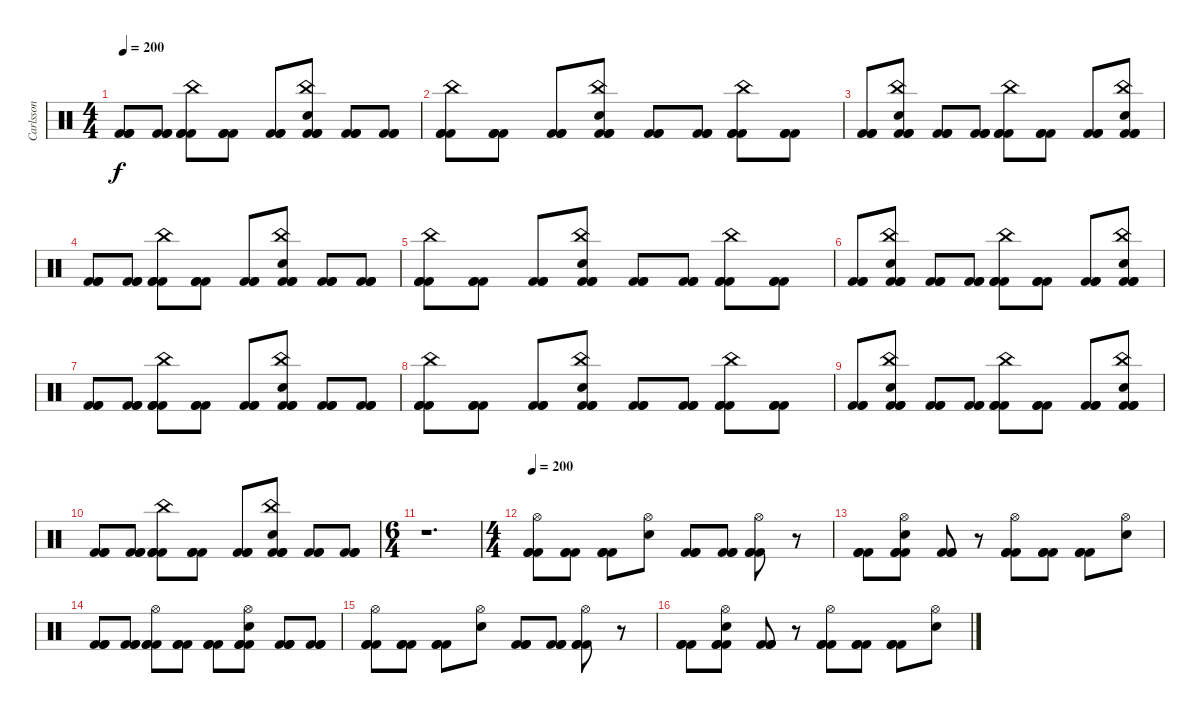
\track ("Carlsson" "Carlsson") {instrument percussion}
\staff {score}
\articulation defaults
\ts (4 4)
\tempo 200
\clef neutral
\ks c
("Kick (hit) 2" "Kick (hit) 2" "Kick (hit) 2").8{dy f} ("Kick (hit) 2" "Kick (hit) 2" "Kick (hit) 2").8 ("China (hit)" "Kick (hit) 2" "Kick (hit) 2" "Kick (hit) 2").8 ("Kick (hit) 2" "Kick (hit) 2" "Kick (hit) 2").8 ("Kick (hit) 2" "Kick (hit) 2" "Kick (hit) 2").8 ("China (hit)" "Snare (hit) 2" "Kick (hit) 2" "Kick (hit) 2" "Kick (hit) 2").8 ("Kick (hit) 2" "Kick (hit) 2" "Kick (hit) 2").8 ("Kick (hit) 2" "Kick (hit) 2" "Kick (hit) 2").8 |
("China (hit)" "Kick (hit) 2" "Kick (hit) 2" "Kick (hit) 2").8 ("Kick (hit) 2" "Kick (hit) 2" "Kick (hit) 2").8 ("Kick (hit) 2" "Kick (hit) 2" "Kick (hit) 2").8 ("China (hit)" "Snare (hit) 2" "Kick (hit) 2" "Kick (hit) 2" "Kick (hit) 2").8 ("Kick (hit) 2" "Kick (hit) 2" "Kick (hit) 2").8 ("Kick (hit) 2" "Kick (hit) 2" "Kick (hit) 2").8 ("China (hit)" "Kick (hit) 2" "Kick (hit) 2" "Kick (hit) 2").8 ("Kick (hit) 2" "Kick (hit) 2" "Kick (hit) 2").8 |
("Kick (hit) 2" "Kick (hit) 2" "Kick (hit) 2").8 ("China (hit)" "Snare (hit) 2" "Kick (hit) 2" "Kick (hit) 2" "Kick (hit) 2").8 ("Kick (hit) 2" "Kick (hit) 2" "Kick (hit) 2").8 ("Kick (hit) 2" "Kick (hit) 2" "Kick (hit) 2").8 ("China (hit)" "Kick (hit) 2" "Kick (hit) 2" "Kick (hit) 2").8 ("Kick (hit) 2" "Kick (hit) 2" "Kick (hit) 2").8 ("Kick (hit) 2" "Kick (hit) 2" "Kick (hit) 2").8 ("China (hit)" "Snare (hit) 2" "Kick (hit) 2" "Kick (hit) 2" "Kick (hit) 2").8 |
("Kick (hit) 2" "Kick (hit) 2" "Kick (hit) 2").8 ("Kick (hit) 2" "Kick (hit) 2" "Kick (hit) 2").8 ("China (hit)" "Kick (hit) 2" "Kick (hit) 2" "Kick (hit) 2").8 ("Kick (hit) 2" "Kick (hit) 2" "Kick (hit) 2").8 ("Kick (hit) 2" "Kick (hit) 2" "Kick (hit) 2").8 ("China (hit)" "Snare (hit) 2" "Kick (hit) 2" "Kick (hit) 2" "Kick (hit) 2").8 ("Kick (hit) 2" "Kick (hit) 2" "Kick (hit) 2").8 ("Kick (hit) 2" "Kick (hit) 2" "Kick (hit) 2").8 |
("China (hit)" "Kick (hit) 2" "Kick (hit) 2" "Kick (hit) 2").8 ("Kick (hit) 2" "Kick (hit) 2" "Kick (hit) 2").8 ("Kick (hit) 2" "Kick (hit) 2" "Kick (hit) 2").8 ("China (hit)" "Snare (hit) 2" "Kick (hit) 2" "Kick (hit) 2" "Kick (hit) 2").8 ("Kick (hit) 2" "Kick (hit) 2" "Kick (hit) 2").8 ("Kick (hit) 2" "Kick (hit) 2" "Kick (hit) 2").8 ("China (hit)" "Kick (hit) 2" "Kick (hit) 2" "Kick (hit) 2").8 ("Kick (hit) 2" "Kick (hit) 2" "Kick (hit) 2").8 |
("Kick (hit) 2" "Kick (hit) 2" "Kick (hit) 2").8 ("China (hit)" "Snare (hit) 2" "Kick (hit) 2" "Kick (hit) 2" "Kick (hit) 2").8 ("Kick (hit) 2" "Kick (hit) 2" "Kick (hit) 2").8 ("Kick (hit) 2" "Kick (hit) 2" "Kick (hit) 2").8 ("China (hit)" "Kick (hit) 2" "Kick (hit) 2" "Kick (hit) 2").8 ("Kick (hit) 2" "Kick (hit) 2" "Kick (hit) 2").8 ("Kick (hit) 2" "Kick (hit) 2" "Kick (hit) 2").8 ("China (hit)" "Snare (hit) 2" "Kick (hit) 2" "Kick (hit) 2" "Kick (hit) 2").8 |
("Kick (hit) 2" "Kick (hit) 2" "Kick (hit) 2").8 ("Kick (hit) 2" "Kick (hit) 2" "Kick (hit) 2").8 ("China (hit)" "Kick (hit) 2" "Kick (hit) 2" "Kick (hit) 2").8 ("Kick (hit) 2" "Kick (hit) 2" "Kick (hit) 2").8 ("Kick (hit) 2" "Kick (hit) 2" "Kick (hit) 2").8 ("China (hit)" "Snare (hit) 2" "Kick (hit) 2" "Kick (hit) 2" "Kick (hit) 2").8 ("Kick (hit) 2" "Kick (hit) 2" "Kick (hit) 2").8 ("Kick (hit) 2" "Kick (hit) 2" "Kick (hit) 2").8 |
("China (hit)" "Kick (hit) 2" "Kick (hit) 2" "Kick (hit) 2").8 ("Kick (hit) 2" "Kick (hit) 2" "Kick (hit) 2").8 ("Kick (hit) 2" "Kick (hit) 2" "Kick (hit) 2").8 ("China (hit)" "Snare (hit) 2" "Kick (hit) 2" "Kick (hit) 2" "Kick (hit) 2").8 ("Kick (hit) 2" "Kick (hit) 2" "Kick (hit) 2").8 ("Kick (hit) 2" "Kick (hit) 2" "Kick (hit) 2").8 ("China (hit)" "Kick (hit) 2" "Kick (hit) 2" "Kick (hit) 2").8 ("Kick (hit) 2" "Kick (hit) 2" "Kick (hit) 2").8 |
("Kick (hit) 2" "Kick (hit) 2" "Kick (hit) 2").8 ("China (hit)" "Snare (hit) 2" "Kick (hit) 2" "Kick (hit) 2" "Kick (hit) 2").8 ("Kick (hit) 2" "Kick (hit) 2" "Kick (hit) 2").8 ("Kick (hit) 2" "Kick (hit) 2" "Kick (hit) 2").8 ("China (hit)" "Kick (hit) 2" "Kick (hit) 2" "Kick (hit) 2").8 ("Kick (hit) 2" "Kick (hit) 2" "Kick (hit) 2").8 ("Kick (hit) 2" "Kick (hit) 2" "Kick (hit) 2").8 ("China (hit)" "Snare (hit) 2" "Kick (hit) 2" "Kick (hit) 2" "Kick (hit) 2").8 |
("Kick (hit) 2" "Kick (hit) 2" "Kick (hit) 2").8 ("Kick (hit) 2" "Kick (hit) 2" "Kick (hit) 2").8 ("China (hit)" "Kick (hit) 2" "Kick (hit) 2" "Kick (hit) 2").8 ("Kick (hit) 2" "Kick (hit) 2" "Kick (hit) 2").8 ("Kick (hit) 2" "Kick (hit) 2" "Kick (hit) 2").8 ("China (hit)" "Snare (hit) 2" "Kick (hit) 2" "Kick (hit) 2" "Kick (hit) 2").8 ("Kick (hit) 2" "Kick (hit) 2" "Kick (hit) 2").8 ("Kick (hit) 2" "Kick (hit) 2" "Kick (hit) 2").8 |
\ts (6 4)
r.1{d} |
\ts (4 4)
\tempo 200
("Hi-Hat (open)" "Kick (hit) 2" "Kick (hit) 2" "Kick (hit) 2").8 ("Kick (hit) 2" "Kick (hit) 2" "Kick (hit) 2").8 ("Kick (hit) 2" "Kick (hit) 2" "Kick (hit) 2").8 ("Hi-Hat (open)" "Snare (hit) 2").8 ("Kick (hit) 2" "Kick (hit) 2" "Kick (hit) 2").8 ("Kick (hit) 2" "Kick (hit) 2" "Kick (hit) 2").8 ("Hi-Hat (open)" "Kick (hit) 2" "Kick (hit) 2" "Kick (hit) 2").8 r.8 |
("Kick (hit) 2" "Kick (hit) 2" "Kick (hit) 2").8 ("Hi-Hat (open)" "Snare (hit) 2" "Kick (hit) 2" "Kick (hit) 2" "Kick (hit) 2").8 ("Kick (hit) 2" "Kick (hit) 2" "Kick (hit) 2").8 r.8 ("Hi-Hat (open)" "Kick (hit) 2" "Kick (hit) 2" "Kick (hit) 2").8 ("Kick (hit) 2" "Kick (hit) 2" "Kick (hit) 2").8 ("Kick (hit) 2" "Kick (hit) 2" "Kick (hit) 2").8 ("Hi-Hat (open)" "Snare (hit) 2").8 |
("Kick (hit) 2" "Kick (hit) 2" "Kick (hit) 2").8 ("Kick (hit) 2" "Kick (hit) 2" "Kick (hit) 2").8 ("Hi-Hat (open)" "Kick (hit) 2" "Kick (hit) 2" "Kick (hit) 2").8 ("Kick (hit) 2" "Kick (hit) 2" "Kick (hit) 2").8 ("Kick (hit) 2" "Kick (hit) 2" "Kick (hit) 2").8 ("Hi-Hat (open)" "Snare (hit) 2" "Kick (hit) 2" "Kick (hit) 2" "Kick (hit) 2").8 ("Kick (hit) 2" "Kick (hit) 2" "Kick (hit) 2").8 ("Kick (hit) 2" "Kick (hit) 2" "Kick (hit) 2").8 |
("Hi-Hat (open)" "Kick (hit) 2" "Kick (hit) 2" "Kick (hit) 2").8 ("Kick (hit) 2" "Kick (hit) 2" "Kick (hit) 2").8 ("Kick (hit) 2" "Kick (hit) 2" "Kick (hit) 2").8 ("Hi-Hat (open)" "Snare (hit) 2").8 ("Kick (hit) 2" "Kick (hit) 2" "Kick (hit) 2").8 ("Kick (hit) 2" "Kick (hit) 2" "Kick (hit) 2").8 ("Hi-Hat (open)" "Kick (hit) 2" "Kick (hit) 2" "Kick (hit) 2").8 r.8 |
("Kick (hit) 2" "Kick (hit) 2" "Kick (hit) 2").8 ("Hi-Hat (open)" "Snare (hit) 2" "Kick (hit) 2" "Kick (hit) 2" "Kick (hit) 2").8 ("Kick (hit) 2" "Kick (hit) 2" "Kick (hit) 2").8 r.8 ("Hi-Hat (open)" "Kick (hit) 2" "Kick (hit) 2" "Kick (hit) 2").8 ("Kick (hit) 2" "Kick (hit) 2" "Kick (hit) 2").8 ("Kick (hit) 2" "Kick (hit) 2" "Kick (hit) 2").8 ("Hi-Hat (open)" "Snare (hit) 2").8
